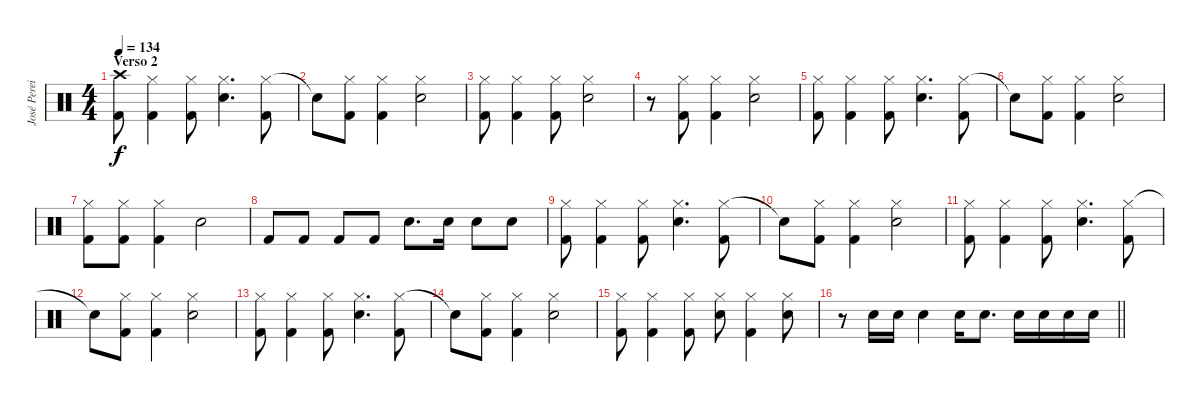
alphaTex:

\track ("José Pereira" "José Perei") {instrument percussion}
\staff {score}
\articulation defaults
\ts (4 4)
\section ("" "Verso 2")
\tempo 134
\clef neutral
\ks c
("Crash high (hit)" "Kick (hit) 2").8{dy f} ("Hi-Hat (closed)" "Kick (hit) 2").4 ("Hi-Hat (closed)" "Kick (hit) 2").8 ("Hi-Hat (closed)" "Snare (hit) 2").4{d} ("Hi-Hat (closed)" "Kick (hit) 2").8 |
"Snare (hit)"{t}.8 ("Hi-Hat (closed)" "Kick (hit) 2").8 ("Hi-Hat (closed)" "Kick (hit) 2").4 ("Hi-Hat (closed)" "Snare (hit) 2").2 |
("Hi-Hat (closed)" "Kick (hit) 2").8 ("Hi-Hat (closed)" "Kick (hit) 2").4 ("Hi-Hat (closed)" "Kick (hit) 2").8 ("Hi-Hat (closed)" "Snare (hit) 2").2 |
r.8 ("Hi-Hat (closed)" "Kick (hit) 2").8 ("Hi-Hat (closed)" "Kick (hit) 2").4 ("Hi-Hat (closed)" "Snare (hit) 2").2 |
("Hi-Hat (closed)" "Kick (hit) 2").8 ("Hi-Hat (closed)" "Kick (hit) 2").4 ("Hi-Hat (closed)" "Kick (hit) 2").8 ("Hi-Hat (closed)" "Snare (hit) 2").4{d} ("Hi-Hat (closed)" "Kick (hit) 2").8 |
"Snare (hit)"{t}.8 ("Hi-Hat (closed)" "Kick (hit) 2").8 ("Hi-Hat (closed)" "Kick (hit) 2").4 ("Hi-Hat (closed)" "Snare (hit) 2").2 |
("Hi-Hat (closed)" "Kick (hit) 2").8 ("Hi-Hat (closed)" "Kick (hit) 2").8 ("Hi-Hat (closed)" "Kick (hit) 2").4 "Snare (hit) 2".2 |
"Kick (hit) 2".8 "Kick (hit) 2".8 "Kick (hit) 2".8 "Kick (hit) 2".8 "Snare (hit) 2".8{d} "Snare (hit) 2".16 "Snare (hit) 2".8 "Snare (hit) 2".8 |
("Hi-Hat (closed)" "Kick (hit) 2").8 ("Hi-Hat (closed)" "Kick (hit) 2").4 ("Hi-Hat (closed)" "Kick (hit) 2").8 ("Hi-Hat (closed)" "Snare (hit) 2").4{d} ("Hi-Hat (closed)" "Kick (hit) 2").8 |
"Snare (hit)"{t}.8 ("Hi-Hat (closed)" "Kick (hit) 2").8 ("Hi-Hat (closed)" "Kick (hit) 2").4 ("Hi-Hat (closed)" "Snare (hit) 2").2 |
("Hi-Hat (closed)" "Kick (hit) 2").8 ("Hi-Hat (closed)" "Kick (hit) 2").4 ("Hi-Hat (closed)" "Kick (hit) 2").8 ("Hi-Hat (closed)" "Snare (hit) 2").4{d} ("Hi-Hat (closed)" "Kick (hit) 2").8 |
"Snare (hit)"{t}.8 ("Hi-Hat (closed)" "Kick (hit) 2").8 ("Hi-Hat (closed)" "Kick (hit) 2").4 ("Hi-Hat (closed)" "Snare (hit) 2").2 |
("Hi-Hat (closed)" "Kick (hit) 2").8 ("Hi-Hat (closed)" "Kick (hit) 2").4 ("Hi-Hat (closed)" "Kick (hit) 2").8 ("Hi-Hat (closed)" "Snare (hit) 2").4{d} ("Hi-Hat (closed)" "Kick (hit) 2").8 |
"Snare (hit)"{t}.8 ("Hi-Hat (closed)" "Kick (hit) 2").8 ("Hi-Hat (closed)" "Kick (hit) 2").4 ("Hi-Hat (closed)" "Snare (hit) 2").2 |
("Hi-Hat (closed)" "Kick (hit) 2").8 ("Hi-Hat (closed)" "Kick (hit) 2").4 ("Hi-Hat (closed)" "Kick (hit) 2").8 ("Hi-Hat (closed)" "Snare (hit) 2").8 ("Hi-Hat (closed)" "Kick (hit) 2").4 ("Hi-Hat (closed)" "Snare (hit) 2").8 |
\barLineRight lightlight
r.8 "Snare (hit) 2".16 "Snare (hit) 2".16 "Snare (hit) 2".4 "Snare (hit) 2".16 "Snare (hit) 2".8{d} "Snare (hit) 2".16 "Snare (hit) 2".16 "Snare (hit) 2".16 "Snare (hit) 2".16
